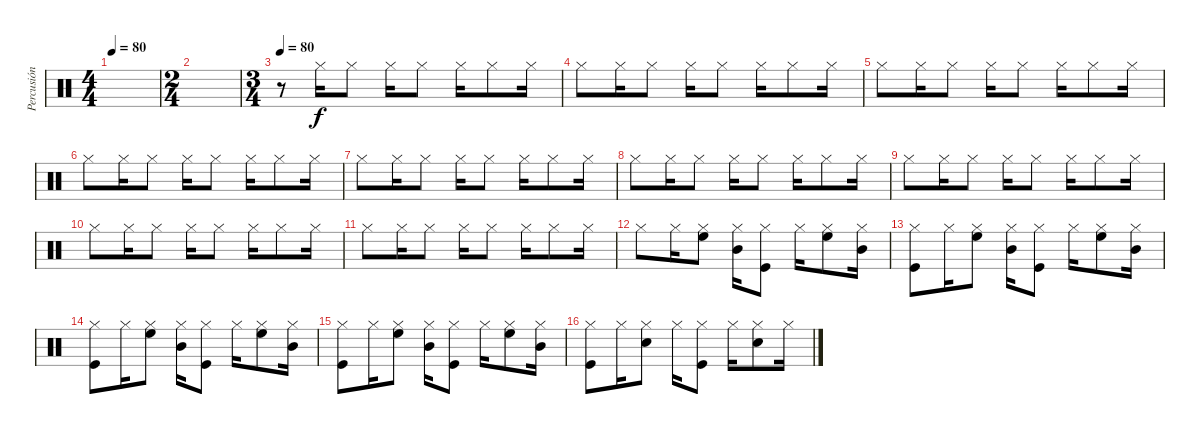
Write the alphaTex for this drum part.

\track ("Percusión" "Percusión") {instrument percussion}
\staff {score}
\articulation defaults
\ts (4 4)
\tempo 80
\tempo 90
\tempo 80
\clef neutral
\ks c
|
\ts (2 4)
|
\ts (3 4)
\tempo 80
r.8 "Hi-Hat (closed)".16 "Hi-Hat (closed)".8 "Hi-Hat (closed)".16 "Hi-Hat (closed)".8 "Hi-Hat (closed)".16 "Hi-Hat (closed)".8 "Hi-Hat (closed)".16 |
"Hi-Hat (closed)".8 "Hi-Hat (closed)".16 "Hi-Hat (closed)".8 "Hi-Hat (closed)".16 "Hi-Hat (closed)".8 "Hi-Hat (closed)".16 "Hi-Hat (closed)".8 "Hi-Hat (closed)".16 |
"Hi-Hat (closed)".8 "Hi-Hat (closed)".16 "Hi-Hat (closed)".8 "Hi-Hat (closed)".16 "Hi-Hat (closed)".8 "Hi-Hat (closed)".16 "Hi-Hat (closed)".8 "Hi-Hat (closed)".16 |
"Hi-Hat (closed)".8 "Hi-Hat (closed)".16 "Hi-Hat (closed)".8 "Hi-Hat (closed)".16 "Hi-Hat (closed)".8 "Hi-Hat (closed)".16 "Hi-Hat (closed)".8 "Hi-Hat (closed)".16 |
"Hi-Hat (closed)".8 "Hi-Hat (closed)".16 "Hi-Hat (closed)".8 "Hi-Hat (closed)".16 "Hi-Hat (closed)".8 "Hi-Hat (closed)".16 "Hi-Hat (closed)".8 "Hi-Hat (closed)".16 |
"Hi-Hat (closed)".8 "Hi-Hat (closed)".16 "Hi-Hat (closed)".8 "Hi-Hat (closed)".16 "Hi-Hat (closed)".8 "Hi-Hat (closed)".16 "Hi-Hat (closed)".8 "Hi-Hat (closed)".16 |
"Hi-Hat (closed)".8 "Hi-Hat (closed)".16 "Hi-Hat (closed)".8 "Hi-Hat (closed)".16 "Hi-Hat (closed)".8 "Hi-Hat (closed)".16 "Hi-Hat (closed)".8 "Hi-Hat (closed)".16 |
"Hi-Hat (closed)".8 "Hi-Hat (closed)".16 "Hi-Hat (closed)".8 "Hi-Hat (closed)".16 "Hi-Hat (closed)".8 "Hi-Hat (closed)".16 "Hi-Hat (closed)".8 "Hi-Hat (closed)".16 |
"Hi-Hat (closed)".8 "Hi-Hat (closed)".16 "Hi-Hat (closed)".8 "Hi-Hat (closed)".16 "Hi-Hat (closed)".8 "Hi-Hat (closed)".16 "Hi-Hat (closed)".8 "Hi-Hat (closed)".16 |
"Hi-Hat (closed)".8 "Hi-Hat (closed)".16 ("Hi-Hat (closed)" "High Floor Tom (hit)").8 ("Hi-Hat (closed)" "Mid Tom (hit)").16 ("Hi-Hat (closed)" "Kick (hit)").8 "Hi-Hat (closed)".16 ("Hi-Hat (closed)" "High Floor Tom (hit)").8 ("Hi-Hat (closed)" "Mid Tom (hit)").16 |
("Hi-Hat (closed)" "Kick (hit)").8 "Hi-Hat (closed)".16 ("Hi-Hat (closed)" "High Floor Tom (hit)").8 ("Hi-Hat (closed)" "Mid Tom (hit)").16 ("Hi-Hat (closed)" "Kick (hit)").8 "Hi-Hat (closed)".16 ("Hi-Hat (closed)" "High Floor Tom (hit)").8 ("Hi-Hat (closed)" "Mid Tom (hit)").16 |
("Hi-Hat (closed)" "Kick (hit)").8 "Hi-Hat (closed)".16 ("Hi-Hat (closed)" "High Floor Tom (hit)").8 ("Hi-Hat (closed)" "Mid Tom (hit)").16 ("Hi-Hat (closed)" "Kick (hit)").8 "Hi-Hat (closed)".16 ("Hi-Hat (closed)" "High Floor Tom (hit)").8 ("Hi-Hat (closed)" "Mid Tom (hit)").16 |
("Hi-Hat (closed)" "Kick (hit)").8 "Hi-Hat (closed)".16 ("Hi-Hat (closed)" "High Floor Tom (hit)").8 ("Hi-Hat (closed)" "Mid Tom (hit)").16 ("Hi-Hat (closed)" "Kick (hit)").8 "Hi-Hat (closed)".16 ("Hi-Hat (closed)" "High Floor Tom (hit)").8 ("Hi-Hat (closed)" "Mid Tom (hit)").16 |
("Hi-Hat (closed)" "Kick (hit)").8 "Hi-Hat (closed)".16 ("Hi-Hat (closed)" "Snare (hit) 2").8 "Hi-Hat (closed)".16 ("Hi-Hat (closed)" "Kick (hit)").8 "Hi-Hat (closed)".16 ("Hi-Hat (closed)" "Snare (hit) 2").8 "Hi-Hat (closed)".16
